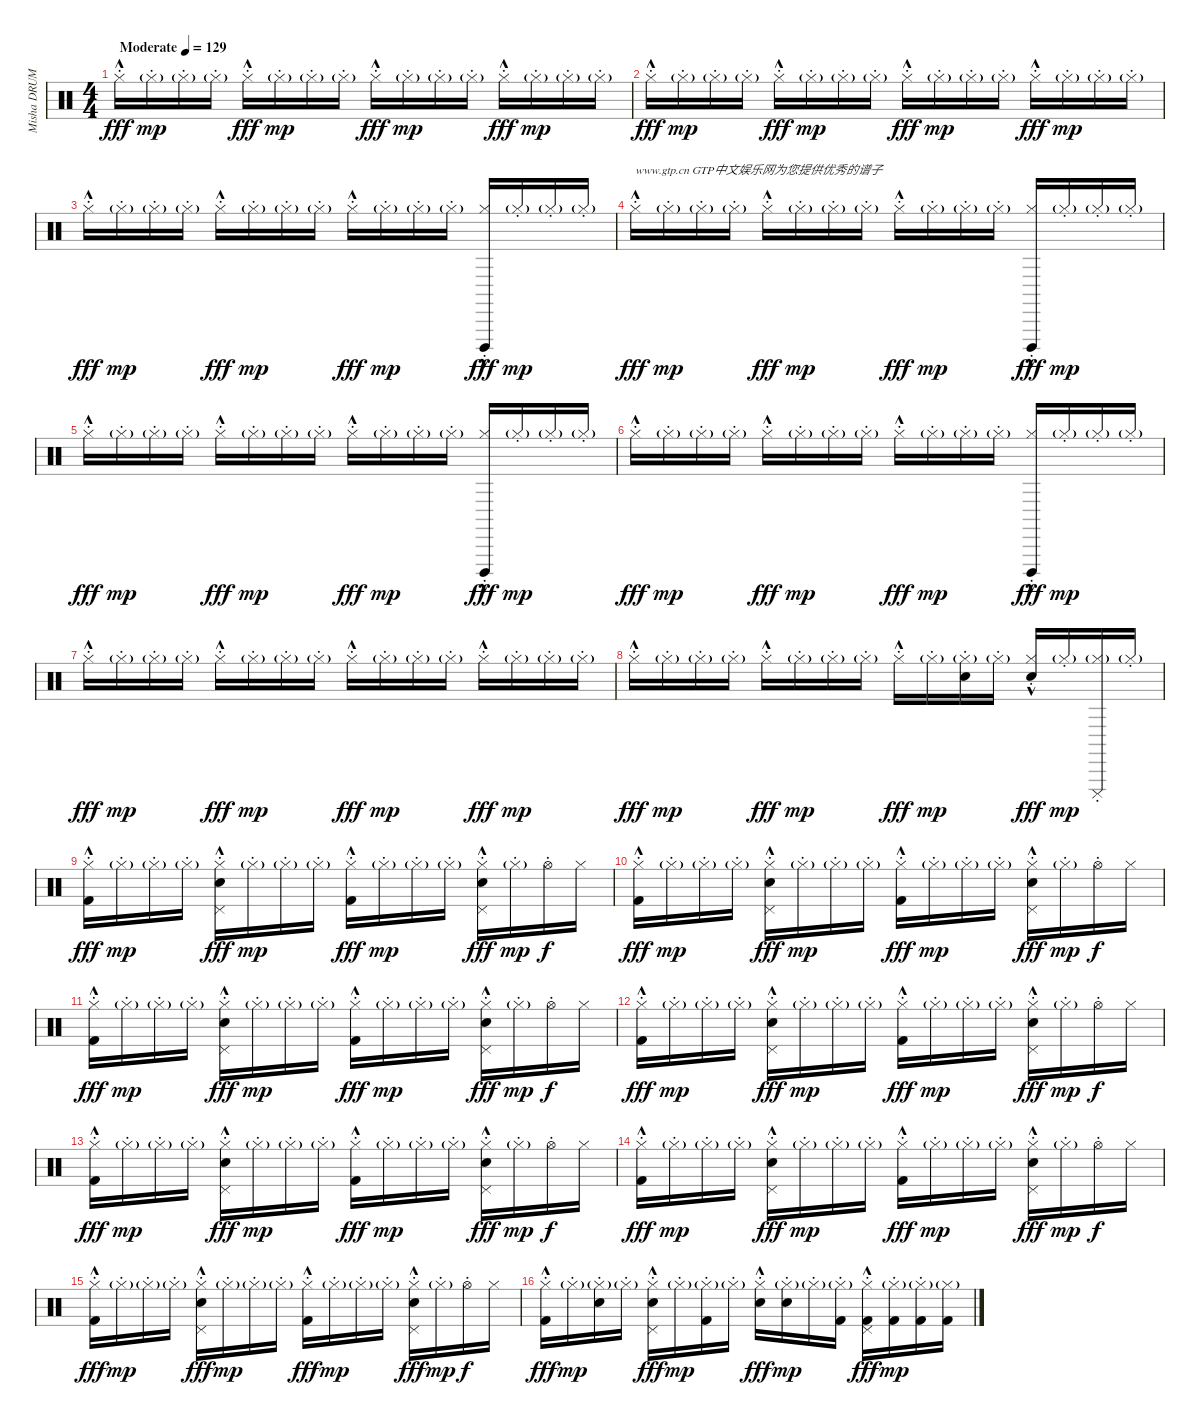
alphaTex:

\track ("Misha DRUMS" "Misha DRUM") {instrument percussion}
\staff {score}
\articulation defaults
\ts (4 4)
\tempo (129 "Moderate")
\clef neutral
\ks c "Hi-Hat (closed)"{hac st}.16{dy fff} "Hi-Hat (closed)"{g st}.16{dy mp} "Hi-Hat (closed)"{g st}.16 "Hi-Hat (closed)"{g st}.16 "Hi-Hat (closed)"{hac st}.16{dy fff} "Hi-Hat (closed)"{g st}.16{dy mp} "Hi-Hat (closed)"{g st}.16 "Hi-Hat (closed)"{g st}.16 "Hi-Hat (closed)"{hac st}.16{dy fff} "Hi-Hat (closed)"{g st}.16{dy mp} "Hi-Hat (closed)"{g st}.16 "Hi-Hat (closed)"{g st}.16 "Hi-Hat (closed)"{hac st}.16{dy fff} "Hi-Hat (closed)"{g st}.16{dy mp} "Hi-Hat (closed)"{g st}.16 "Hi-Hat (closed)"{g st}.16
|
"Hi-Hat (closed)"{hac st}.16{dy fff} "Hi-Hat (closed)"{g st}.16{dy mp} "Hi-Hat (closed)"{g st}.16 "Hi-Hat (closed)"{g st}.16 "Hi-Hat (closed)"{hac st}.16{dy fff} "Hi-Hat (closed)"{g st}.16{dy mp} "Hi-Hat (closed)"{g st}.16 "Hi-Hat (closed)"{g st}.16 "Hi-Hat (closed)"{hac st}.16{dy fff} "Hi-Hat (closed)"{g st}.16{dy mp} "Hi-Hat (closed)"{g st}.16 "Hi-Hat (closed)"{g st}.16 "Hi-Hat (closed)"{hac st}.16{dy fff} "Hi-Hat (closed)"{g st}.16{dy mp} "Hi-Hat (closed)"{g st}.16 "Hi-Hat (closed)"{g st}.16 |
"Hi-Hat (closed)"{hac st}.16{dy fff} "Hi-Hat (closed)"{g st}.16{dy mp} "Hi-Hat (closed)"{g st}.16 "Hi-Hat (closed)"{g st}.16 "Hi-Hat (closed)"{hac st}.16{dy fff} "Hi-Hat (closed)"{g st}.16{dy mp} "Hi-Hat (closed)"{g st}.16 "Hi-Hat (closed)"{g st}.16 "Hi-Hat (closed)"{hac st}.16{dy fff} "Hi-Hat (closed)"{g st}.16{dy mp} "Hi-Hat (closed)"{g st}.16 "Hi-Hat (closed)"{g st}.16 ("Hi-Hat (closed)"{hac st} "Cuica (open)").16{dy fff} "Hi-Hat (closed)"{g st}.16{dy mp} "Hi-Hat (closed)"{g st}.16 "Hi-Hat (closed)"{g st}.16 |
"Hi-Hat (closed)"{hac st}.16{txt "www.gtp.cn GTP中文娱乐网为您提供优秀的谱子" dy fff} "Hi-Hat (closed)"{g st}.16{dy mp} "Hi-Hat (closed)"{g st}.16 "Hi-Hat (closed)"{g st}.16 "Hi-Hat (closed)"{hac st}.16{dy fff} "Hi-Hat (closed)"{g st}.16{dy mp} "Hi-Hat (closed)"{g st}.16 "Hi-Hat (closed)"{g st}.16 "Hi-Hat (closed)"{hac st}.16{dy fff} "Hi-Hat (closed)"{g st}.16{dy mp} "Hi-Hat (closed)"{g st}.16 "Hi-Hat (closed)"{g st}.16 ("Hi-Hat (closed)"{hac st} "Cuica (open)").16{dy fff} "Hi-Hat (closed)"{g st}.16{dy mp} "Hi-Hat (closed)"{g st}.16 "Hi-Hat (closed)"{g st}.16 |
"Hi-Hat (closed)"{hac st}.16{dy fff} "Hi-Hat (closed)"{g st}.16{dy mp} "Hi-Hat (closed)"{g st}.16 "Hi-Hat (closed)"{g st}.16 "Hi-Hat (closed)"{hac st}.16{dy fff} "Hi-Hat (closed)"{g st}.16{dy mp} "Hi-Hat (closed)"{g st}.16 "Hi-Hat (closed)"{g st}.16 "Hi-Hat (closed)"{hac st}.16{dy fff} "Hi-Hat (closed)"{g st}.16{dy mp} "Hi-Hat (closed)"{g st}.16 "Hi-Hat (closed)"{g st}.16 ("Hi-Hat (closed)"{hac st} "Cuica (open)").16{dy fff} "Hi-Hat (closed)"{g st}.16{dy mp} "Hi-Hat (closed)"{g st}.16 "Hi-Hat (closed)"{g st}.16 |
"Hi-Hat (closed)"{hac st}.16{dy fff} "Hi-Hat (closed)"{g st}.16{dy mp} "Hi-Hat (closed)"{g st}.16 "Hi-Hat (closed)"{g st}.16 "Hi-Hat (closed)"{hac st}.16{dy fff} "Hi-Hat (closed)"{g st}.16{dy mp} "Hi-Hat (closed)"{g st}.16 "Hi-Hat (closed)"{g st}.16 "Hi-Hat (closed)"{hac st}.16{dy fff} "Hi-Hat (closed)"{g st}.16{dy mp} "Hi-Hat (closed)"{g st}.16 "Hi-Hat (closed)"{g st}.16 ("Hi-Hat (closed)"{hac st} "Cuica (open)").16{dy fff} "Hi-Hat (closed)"{g st}.16{dy mp} "Hi-Hat (closed)"{g st}.16 "Hi-Hat (closed)"{g st}.16 |
"Hi-Hat (closed)"{hac st}.16{dy fff} "Hi-Hat (closed)"{g st}.16{dy mp} "Hi-Hat (closed)"{g st}.16 "Hi-Hat (closed)"{g st}.16 "Hi-Hat (closed)"{hac st}.16{dy fff} "Hi-Hat (closed)"{g st}.16{dy mp} "Hi-Hat (closed)"{g st}.16 "Hi-Hat (closed)"{g st}.16 "Hi-Hat (closed)"{hac st}.16{dy fff} "Hi-Hat (closed)"{g st}.16{dy mp} "Hi-Hat (closed)"{g st}.16 "Hi-Hat (closed)"{g st}.16 "Hi-Hat (closed)"{hac st}.16{dy fff} "Hi-Hat (closed)"{g st}.16{dy mp} "Hi-Hat (closed)"{g st}.16 "Hi-Hat (closed)"{g st}.16 |
"Hi-Hat (closed)"{hac st}.16{dy fff} "Hi-Hat (closed)"{g st}.16{dy mp} "Hi-Hat (closed)"{g st}.16 "Hi-Hat (closed)"{g st}.16 "Hi-Hat (closed)"{hac st}.16{dy fff} "Hi-Hat (closed)"{g st}.16{dy mp} "Hi-Hat (closed)"{g st}.16 "Hi-Hat (closed)"{g st}.16 "Hi-Hat (closed)"{hac st}.16{dy fff} "Hi-Hat (closed)"{g st}.16{dy mp} ("Hi-Hat (closed)"{g st} "Snare (hit) 2").16 "Hi-Hat (closed)"{g st}.16 ("Hi-Hat (closed)"{hac st} "Snare (hit) 2").16{dy fff} "Hi-Hat (closed)"{g st}.16{dy mp} ("Hi-Hat (closed)"{g st} "Cuica (mute)").16 "Hi-Hat (closed)"{g st}.16 |
("Hi-Hat (closed)"{hac st} "Kick (hit) 2").16{dy fff} "Hi-Hat (closed)"{g st}.16{dy mp} "Hi-Hat (closed)"{g st}.16 "Hi-Hat (closed)"{g st}.16 ("Hi-Hat (closed)"{hac st} "Pedal Hi-Hat (hit)" "Snare (hit) 2").16{dy fff} "Hi-Hat (closed)"{g st}.16{dy mp} "Hi-Hat (closed)"{g st}.16 "Hi-Hat (closed)"{g st}.16 ("Hi-Hat (closed)"{hac st} "Kick (hit) 2").16{dy fff} "Hi-Hat (closed)"{g st}.16{dy mp} "Hi-Hat (closed)"{g st}.16 "Hi-Hat (closed)"{g st}.16 ("Hi-Hat (closed)"{hac st} "Pedal Hi-Hat (hit)" "Snare (hit) 2").16{dy fff} "Hi-Hat (closed)"{g st}.16{dy mp} "Hi-Hat (open)"{st}.16{dy f} "Hi-Hat (closed)".16 |
("Hi-Hat (closed)"{hac st} "Kick (hit) 2").16{dy fff} "Hi-Hat (closed)"{g st}.16{dy mp} "Hi-Hat (closed)"{g st}.16 "Hi-Hat (closed)"{g st}.16 ("Hi-Hat (closed)"{hac st} "Pedal Hi-Hat (hit)" "Snare (hit) 2").16{dy fff} "Hi-Hat (closed)"{g st}.16{dy mp} "Hi-Hat (closed)"{g st}.16 "Hi-Hat (closed)"{g st}.16 ("Hi-Hat (closed)"{hac st} "Kick (hit) 2").16{dy fff} "Hi-Hat (closed)"{g st}.16{dy mp} "Hi-Hat (closed)"{g st}.16 "Hi-Hat (closed)"{g st}.16 ("Hi-Hat (closed)"{hac st} "Pedal Hi-Hat (hit)" "Snare (hit) 2").16{dy fff} "Hi-Hat (closed)"{g st}.16{dy mp} "Hi-Hat (open)"{st}.16{dy f} "Hi-Hat (closed)".16 |
("Hi-Hat (closed)"{hac st} "Kick (hit) 2").16{dy fff} "Hi-Hat (closed)"{g st}.16{dy mp} "Hi-Hat (closed)"{g st}.16 "Hi-Hat (closed)"{g st}.16 ("Hi-Hat (closed)"{hac st} "Pedal Hi-Hat (hit)" "Snare (hit) 2").16{dy fff} "Hi-Hat (closed)"{g st}.16{dy mp} "Hi-Hat (closed)"{g st}.16 "Hi-Hat (closed)"{g st}.16 ("Hi-Hat (closed)"{hac st} "Kick (hit) 2").16{dy fff} "Hi-Hat (closed)"{g st}.16{dy mp} "Hi-Hat (closed)"{g st}.16 "Hi-Hat (closed)"{g st}.16 ("Hi-Hat (closed)"{hac st} "Pedal Hi-Hat (hit)" "Snare (hit) 2").16{dy fff} "Hi-Hat (closed)"{g st}.16{dy mp} "Hi-Hat (open)"{st}.16{dy f} "Hi-Hat (closed)".16 |
("Hi-Hat (closed)"{hac st} "Kick (hit) 2").16{dy fff} "Hi-Hat (closed)"{g st}.16{dy mp} "Hi-Hat (closed)"{g st}.16 "Hi-Hat (closed)"{g st}.16 ("Hi-Hat (closed)"{hac st} "Pedal Hi-Hat (hit)" "Snare (hit) 2").16{dy fff} "Hi-Hat (closed)"{g st}.16{dy mp} "Hi-Hat (closed)"{g st}.16 "Hi-Hat (closed)"{g st}.16 ("Hi-Hat (closed)"{hac st} "Kick (hit) 2").16{dy fff} "Hi-Hat (closed)"{g st}.16{dy mp} "Hi-Hat (closed)"{g st}.16 "Hi-Hat (closed)"{g st}.16 ("Hi-Hat (closed)"{hac st} "Pedal Hi-Hat (hit)" "Snare (hit) 2").16{dy fff} "Hi-Hat (closed)"{g st}.16{dy mp} "Hi-Hat (open)"{st}.16{dy f} "Hi-Hat (closed)".16 |
("Hi-Hat (closed)"{hac st} "Kick (hit) 2").16{dy fff} "Hi-Hat (closed)"{g st}.16{dy mp} "Hi-Hat (closed)"{g st}.16 "Hi-Hat (closed)"{g st}.16 ("Hi-Hat (closed)"{hac st} "Pedal Hi-Hat (hit)" "Snare (hit) 2").16{dy fff} "Hi-Hat (closed)"{g st}.16{dy mp} "Hi-Hat (closed)"{g st}.16 "Hi-Hat (closed)"{g st}.16 ("Hi-Hat (closed)"{hac st} "Kick (hit) 2").16{dy fff} "Hi-Hat (closed)"{g st}.16{dy mp} "Hi-Hat (closed)"{g st}.16 "Hi-Hat (closed)"{g st}.16 ("Hi-Hat (closed)"{hac st} "Pedal Hi-Hat (hit)" "Snare (hit) 2").16{dy fff} "Hi-Hat (closed)"{g st}.16{dy mp} "Hi-Hat (open)"{st}.16{dy f} "Hi-Hat (closed)".16 |
("Hi-Hat (closed)"{hac st} "Kick (hit) 2").16{dy fff} "Hi-Hat (closed)"{g st}.16{dy mp} "Hi-Hat (closed)"{g st}.16 "Hi-Hat (closed)"{g st}.16 ("Hi-Hat (closed)"{hac st} "Pedal Hi-Hat (hit)" "Snare (hit) 2").16{dy fff} "Hi-Hat (closed)"{g st}.16{dy mp} "Hi-Hat (closed)"{g st}.16 "Hi-Hat (closed)"{g st}.16 ("Hi-Hat (closed)"{hac st} "Kick (hit) 2").16{dy fff} "Hi-Hat (closed)"{g st}.16{dy mp} "Hi-Hat (closed)"{g st}.16 "Hi-Hat (closed)"{g st}.16 ("Hi-Hat (closed)"{hac st} "Pedal Hi-Hat (hit)" "Snare (hit) 2").16{dy fff} "Hi-Hat (closed)"{g st}.16{dy mp} "Hi-Hat (open)"{st}.16{dy f} "Hi-Hat (closed)".16 |
("Hi-Hat (closed)"{hac st} "Kick (hit) 2").16{dy fff} "Hi-Hat (closed)"{g st}.16{dy mp} "Hi-Hat (closed)"{g st}.16 "Hi-Hat (closed)"{g st}.16 ("Hi-Hat (closed)"{hac st} "Pedal Hi-Hat (hit)" "Snare (hit) 2").16{dy fff} "Hi-Hat (closed)"{g st}.16{dy mp} "Hi-Hat (closed)"{g st}.16 "Hi-Hat (closed)"{g st}.16 ("Hi-Hat (closed)"{hac st} "Kick (hit) 2").16{dy fff} "Hi-Hat (closed)"{g st}.16{dy mp} "Hi-Hat (closed)"{g st}.16 "Hi-Hat (closed)"{g st}.16 ("Hi-Hat (closed)"{hac st} "Pedal Hi-Hat (hit)" "Snare (hit) 2").16{dy fff} "Hi-Hat (closed)"{g st}.16{dy mp} "Hi-Hat (open)"{st}.16{dy f} "Hi-Hat (closed)".16 |
("Hi-Hat (closed)"{hac st} "Kick (hit) 2").16{dy fff} "Hi-Hat (closed)"{g st}.16{dy mp} ("Hi-Hat (closed)"{g st} "Snare (hit) 2").16 "Hi-Hat (closed)"{g st}.16 ("Hi-Hat (closed)"{hac st} "Pedal Hi-Hat (hit)" "Snare (hit) 2").16{dy fff} "Hi-Hat (closed)"{g st}.16{dy mp} ("Hi-Hat (closed)"{g st} "Kick (hit) 2").16 "Hi-Hat (closed)"{g st}.16 ("Hi-Hat (closed)"{hac st} "Snare (hit) 2").16{dy fff} ("Hi-Hat (closed)"{g st} "Snare (hit) 2").16{dy mp} "Hi-Hat (closed)"{g st}.16 ("Hi-Hat (closed)"{g st} "Kick (hit) 2").16 ("Hi-Hat (closed)"{hac st} "Pedal Hi-Hat (hit)" "Kick (hit) 2").16{dy fff} ("Hi-Hat (closed)"{g st} "Kick (hit) 2").16{dy mp} ("Hi-Hat (closed)"{g st} "Kick (hit) 2").16 ("Hi-Hat (closed)"{g} "Kick (hit) 2").16
